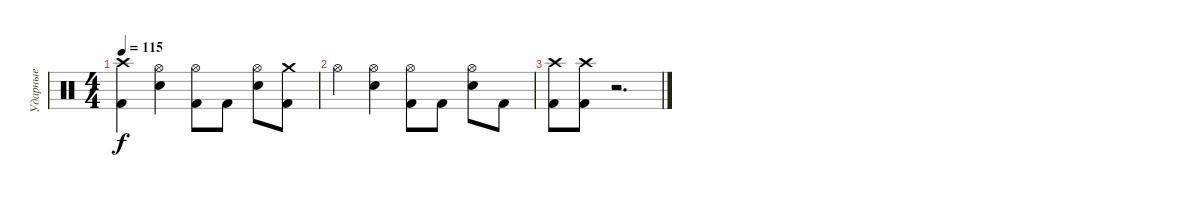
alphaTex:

\track ("Ударные" "Ударные") {instrument percussion}
\staff {score}
\articulation defaults
\ts (4 4)
\tempo 115
\clef neutral
\ks c
("Kick (hit) 2" "Crash high (hit)").4{dy f} ("Snare (hit) 2" "Hi-Hat (open)").4 ("Kick (hit) 2" "Hi-Hat (open)").8 "Kick (hit) 2".8 ("Snare (hit) 2" "Hi-Hat (open)").8 ("Kick (hit) 2" "Crash medium (hit)").8 |
"Hi-Hat (open)".4 ("Snare (hit) 2" "Hi-Hat (open)").4 ("Kick (hit) 2" "Hi-Hat (open)").8 "Kick (hit) 2".8 ("Snare (hit) 2" "Hi-Hat (open)").8 "Kick (hit) 2".8 |
("Kick (hit) 2" "Crash high (hit)").8 ("Kick (hit) 2" "Crash high (hit)").8 r.2{d}
